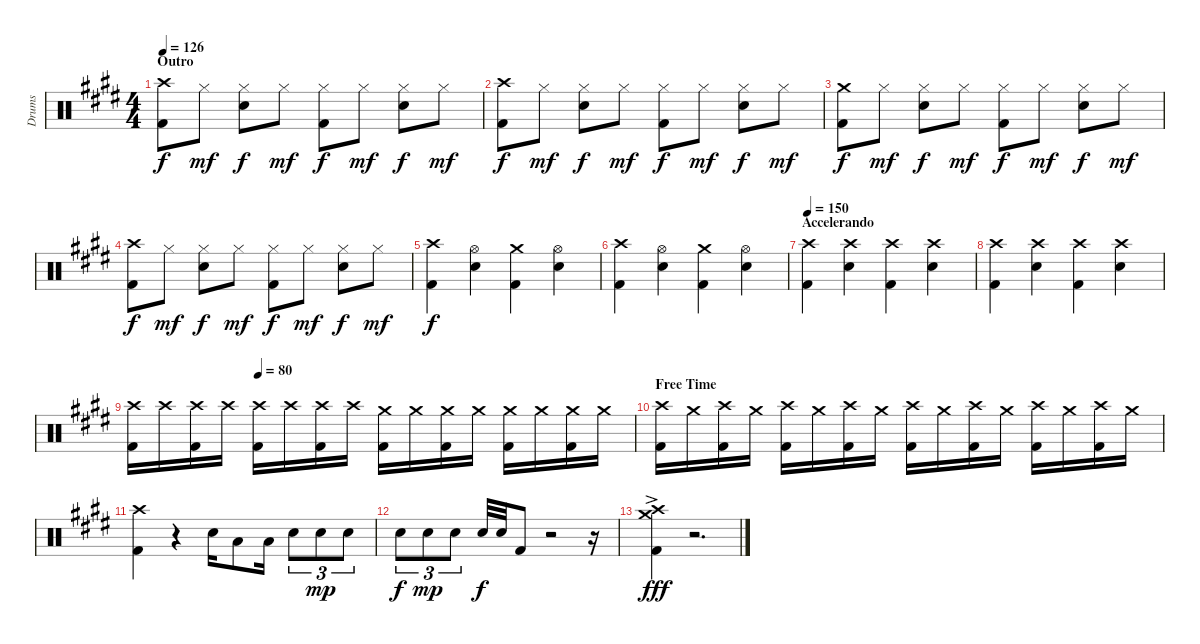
\track ("Drums" "Drums") {instrument percussion}
\staff {score}
\articulation defaults
\ts (4 4)
\section ("" "Outro")
\tempo 126
\clef neutral
\ks e
("Crash high (hit)" "Kick (hit) 2").8{dy f} "Hi-Hat (closed)".8{dy mf} ("Hi-Hat (closed)" "Snare (hit) 2").8{dy f} "Hi-Hat (closed)".8{dy mf} ("Hi-Hat (closed)" "Kick (hit) 2").8{dy f} "Hi-Hat (closed)".8{dy mf} ("Hi-Hat (closed)" "Snare (hit) 2").8{dy f} "Hi-Hat (closed)".8{dy mf} |
("Crash high (hit)" "Kick (hit) 2").8{dy f} "Hi-Hat (closed)".8{dy mf} ("Hi-Hat (closed)" "Snare (hit) 2").8{dy f} "Hi-Hat (closed)".8{dy mf} ("Hi-Hat (closed)" "Kick (hit) 2").8{dy f} "Hi-Hat (closed)".8{dy mf} ("Hi-Hat (closed)" "Snare (hit) 2").8{dy f} "Hi-Hat (closed)".8{dy mf} |
("Crash medium (hit)" "Kick (hit) 2").8{dy f} "Hi-Hat (closed)".8{dy mf} ("Hi-Hat (closed)" "Snare (hit) 2").8{dy f} "Hi-Hat (closed)".8{dy mf} ("Hi-Hat (closed)" "Kick (hit) 2").8{dy f} "Hi-Hat (closed)".8{dy mf} ("Hi-Hat (closed)" "Snare (hit) 2").8{dy f} "Hi-Hat (closed)".8{dy mf} |
("Crash high (hit)" "Kick (hit) 2").8{dy f} "Hi-Hat (closed)".8{dy mf} ("Hi-Hat (closed)" "Snare (hit) 2").8{dy f} "Hi-Hat (closed)".8{dy mf} ("Hi-Hat (closed)" "Kick (hit) 2").8{dy f} "Hi-Hat (closed)".8{dy mf} ("Hi-Hat (closed)" "Snare (hit) 2").8{dy f} "Hi-Hat (closed)".8{dy mf} |
("Crash high (hit)" "Kick (hit) 2").4{dy f} ("Hi-Hat (open)" "Snare (hit) 2").4 ("Crash medium (hit)" "Kick (hit) 2").4 ("Hi-Hat (open)" "Snare (hit) 2").4 |
("Crash high (hit)" "Kick (hit) 2").4 ("Hi-Hat (open)" "Snare (hit) 2").4 ("Crash medium (hit)" "Kick (hit) 2").4 ("Hi-Hat (open)" "Snare (hit) 2").4 |
\section ("" "Accelerando")
\tempo 150
("Crash high (hit)" "Kick (hit) 2").4 ("Crash high (hit)" "Snare (hit) 2").4 ("Crash high (hit)" "Kick (hit) 2").4 ("Crash high (hit)" "Snare (hit) 2").4 |
("Crash high (hit)" "Kick (hit) 2").4 ("Crash high (hit)" "Snare (hit) 2").4 ("Crash high (hit)" "Kick (hit) 2").4 ("Crash high (hit)" "Snare (hit) 2").4 |
\tempo (80 0.25)
("Crash high (hit)" "Kick (hit) 2").16 "Crash high (hit)".16 ("Crash high (hit)" "Kick (hit) 2").16 "Crash high (hit)".16 ("Crash high (hit)" "Kick (hit) 2").16 "Crash high (hit)".16 ("Crash high (hit)" "Kick (hit) 2").16 "Crash high (hit)".16 ("Crash medium (hit)" "Kick (hit) 2").16 "Crash medium (hit)".16 ("Crash medium (hit)" "Kick (hit) 2").16 "Crash medium (hit)".16 ("Crash medium (hit)" "Kick (hit) 2").16 "Crash medium (hit)".16 ("Crash medium (hit)" "Kick (hit) 2").16 "Crash medium (hit)".16 |
\section ("" "Free Time")
("Crash high (hit)" "Kick (hit) 2").16 "Crash medium (hit)".16 ("Crash high (hit)" "Kick (hit) 2").16 "Crash medium (hit)".16 ("Crash high (hit)" "Kick (hit) 2").16 "Crash medium (hit)".16 ("Crash high (hit)" "Kick (hit) 2").16 "Crash medium (hit)".16 ("Crash high (hit)" "Kick (hit) 2").16 "Crash medium (hit)".16 ("Crash high (hit)" "Kick (hit) 2").16 "Crash medium (hit)".16 ("Crash high (hit)" "Kick (hit) 2").16 "Crash medium (hit)".16 ("Crash high (hit)" "Kick (hit) 2").16 "Crash medium (hit)".16 |
("Crash high (hit)" "Kick (hit) 2").4 r.4 "Snare (hit) 2".16 "Low Tom (hit)".8 "Low Tom (hit)".16 "Snare (hit) 2".8{tu (3 2)} "Snare (hit) 2".8{tu (3 2) dy mp} "Snare (hit) 2".8{tu (3 2)} |
"Snare (hit) 2".8{tu (3 2) dy f} "Snare (hit) 2".8{tu (3 2) dy mp} "Snare (hit) 2".8{tu (3 2)} "Snare (hit) 2".32{dy f} "Snare (hit) 2".32 "Kick (hit) 2".8 r.2 r.16 |
("Crash high (hit)"{ac} "Crash medium (hit)"{ac} "Kick (hit) 2"{ac}).4{dy fff} r.2{d}
